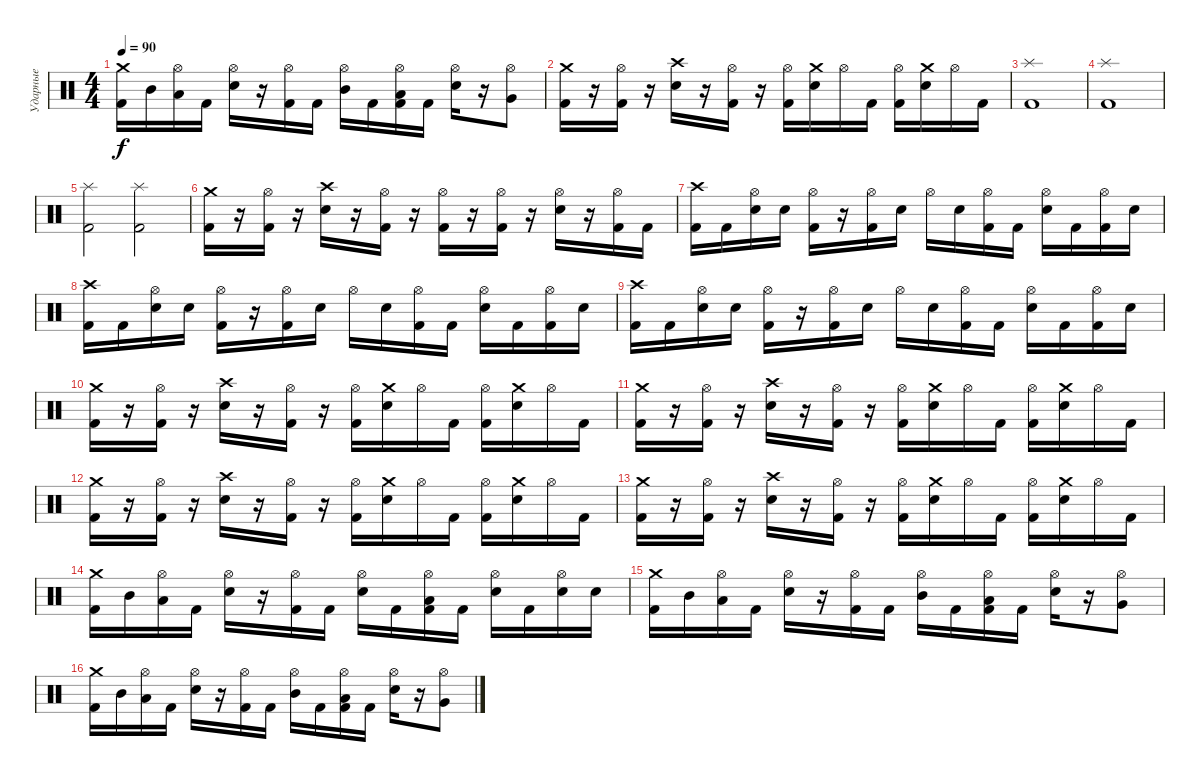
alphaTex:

\track ("Ударные" "Ударные") {instrument percussion}
\staff {score}
\articulation defaults
\ts (4 4)
\tempo 90
\clef neutral
\ks c
("Crash medium (hit)" "Kick (hit) 2").16{dy f} "Mid Tom (hit)".16 ("Hi-Hat (open)" "Low Tom (hit)").16 "Kick (hit) 2".16 ("Hi-Hat (open)" "Snare (hit) 2").16 r.16 ("Hi-Hat (open)" "Kick (hit) 2").16 "Kick (hit) 2".16 ("Hi-Hat (open)" "Mid Tom (hit)").16 "Kick (hit) 2".16 ("Hi-Hat (open)" "Low Tom (hit)" "Kick (hit) 2").16 "Kick (hit) 2".16 ("Hi-Hat (open)" "Snare (hit) 2").16 r.16 ("Hi-Hat (open)" "Very Low Tom (hit)").8 |
("Crash medium (hit)" "Kick (hit) 2").16 r.16 ("Hi-Hat (open)" "Kick (hit) 2").16 r.16 ("Crash high (hit)" "Snare (hit) 2").16 r.16 ("Hi-Hat (open)" "Kick (hit) 2").16 r.16 ("Hi-Hat (open)" "Kick (hit) 2").16 ("Crash medium (hit)" "Snare (hit) 2").16 "Hi-Hat (open)".16 "Kick (hit) 2".16 ("Hi-Hat (open)" "Kick (hit) 2").16 ("Crash medium (hit)" "Snare (hit) 2").16 "Hi-Hat (open)".16 "Kick (hit) 2".16 |
("Splash (hit)" "Kick (hit) 2").1 |
("Splash (hit)" "Kick (hit) 2").1 |
("Splash (hit)" "Kick (hit) 2").2 ("Splash (hit)" "Kick (hit) 2").2 |
("Crash medium (hit)" "Kick (hit) 2").16 r.16 ("Hi-Hat (open)" "Kick (hit) 2").16 r.16 ("Crash high (hit)" "Snare (hit) 2").16 r.16 ("Hi-Hat (open)" "Kick (hit) 2").16 r.16 ("Hi-Hat (open)" "Kick (hit) 2").16 r.16 ("Hi-Hat (open)" "Kick (hit) 2").16 r.16 ("Hi-Hat (open)" "Snare (hit) 2").16 r.16 ("Hi-Hat (open)" "Kick (hit) 2").16 "Kick (hit) 2".16 |
("Crash high (hit)" "Kick (hit) 2").16 "Kick (hit) 2".16 ("Hi-Hat (open)" "Snare (hit) 2").16 "Snare (hit) 2".16 ("Hi-Hat (open)" "Kick (hit) 2").16 r.16 ("Hi-Hat (open)" "Kick (hit) 2").16 "Snare (hit) 2".16 "Hi-Hat (open)".16 "Snare (hit) 2".16 ("Hi-Hat (open)" "Kick (hit) 2").16 "Kick (hit) 2".16 ("Hi-Hat (open)" "Snare (hit) 2").16 "Kick (hit) 2".16 ("Hi-Hat (open)" "Kick (hit) 2").16 "Snare (hit) 2".16 |
("Crash high (hit)" "Kick (hit) 2").16 "Kick (hit) 2".16 ("Hi-Hat (open)" "Snare (hit) 2").16 "Snare (hit) 2".16 ("Hi-Hat (open)" "Kick (hit) 2").16 r.16 ("Hi-Hat (open)" "Kick (hit) 2").16 "Snare (hit) 2".16 "Hi-Hat (open)".16 "Snare (hit) 2".16 ("Hi-Hat (open)" "Kick (hit) 2").16 "Kick (hit) 2".16 ("Hi-Hat (open)" "Snare (hit) 2").16 "Kick (hit) 2".16 ("Hi-Hat (open)" "Kick (hit) 2").16 "Snare (hit) 2".16 |
("Crash high (hit)" "Kick (hit) 2").16 "Kick (hit) 2".16 ("Hi-Hat (open)" "Snare (hit) 2").16 "Snare (hit) 2".16 ("Hi-Hat (open)" "Kick (hit) 2").16 r.16 ("Hi-Hat (open)" "Kick (hit) 2").16 "Snare (hit) 2".16 "Hi-Hat (open)".16 "Snare (hit) 2".16 ("Hi-Hat (open)" "Kick (hit) 2").16 "Kick (hit) 2".16 ("Hi-Hat (open)" "Snare (hit) 2").16 "Kick (hit) 2".16 ("Hi-Hat (open)" "Kick (hit) 2").16 "Snare (hit) 2".16 |
("Crash medium (hit)" "Kick (hit) 2").16 r.16 ("Hi-Hat (open)" "Kick (hit) 2").16 r.16 ("Crash high (hit)" "Snare (hit) 2").16 r.16 ("Hi-Hat (open)" "Kick (hit) 2").16 r.16 ("Hi-Hat (open)" "Kick (hit) 2").16 ("Crash medium (hit)" "Snare (hit) 2").16 "Hi-Hat (open)".16 "Kick (hit) 2".16 ("Hi-Hat (open)" "Kick (hit) 2").16 ("Crash medium (hit)" "Snare (hit) 2").16 "Hi-Hat (open)".16 "Kick (hit) 2".16 |
("Crash medium (hit)" "Kick (hit) 2").16 r.16 ("Hi-Hat (open)" "Kick (hit) 2").16 r.16 ("Crash high (hit)" "Snare (hit) 2").16 r.16 ("Hi-Hat (open)" "Kick (hit) 2").16 r.16 ("Hi-Hat (open)" "Kick (hit) 2").16 ("Crash medium (hit)" "Snare (hit) 2").16 "Hi-Hat (open)".16 "Kick (hit) 2".16 ("Hi-Hat (open)" "Kick (hit) 2").16 ("Crash medium (hit)" "Snare (hit) 2").16 "Hi-Hat (open)".16 "Kick (hit) 2".16 |
("Crash medium (hit)" "Kick (hit) 2").16 r.16 ("Hi-Hat (open)" "Kick (hit) 2").16 r.16 ("Crash high (hit)" "Snare (hit) 2").16 r.16 ("Hi-Hat (open)" "Kick (hit) 2").16 r.16 ("Hi-Hat (open)" "Kick (hit) 2").16 ("Crash medium (hit)" "Snare (hit) 2").16 "Hi-Hat (open)".16 "Kick (hit) 2".16 ("Hi-Hat (open)" "Kick (hit) 2").16 ("Crash medium (hit)" "Snare (hit) 2").16 "Hi-Hat (open)".16 "Kick (hit) 2".16 |
("Crash medium (hit)" "Kick (hit) 2").16 r.16 ("Hi-Hat (open)" "Kick (hit) 2").16 r.16 ("Crash high (hit)" "Snare (hit) 2").16 r.16 ("Hi-Hat (open)" "Kick (hit) 2").16 r.16 ("Hi-Hat (open)" "Kick (hit) 2").16 ("Crash medium (hit)" "Snare (hit) 2").16 "Hi-Hat (open)".16 "Kick (hit) 2".16 ("Hi-Hat (open)" "Kick (hit) 2").16 ("Crash medium (hit)" "Snare (hit) 2").16 "Hi-Hat (open)".16 "Kick (hit) 2".16 |
("Crash medium (hit)" "Kick (hit) 2").16 "Mid Tom (hit)".16 ("Hi-Hat (open)" "Low Tom (hit)").16 "Kick (hit) 2".16 ("Hi-Hat (open)" "Snare (hit) 2").16 r.16 ("Hi-Hat (open)" "Kick (hit) 2").16 "Kick (hit) 2".16 ("Hi-Hat (open)" "Snare (hit) 2").16 "Kick (hit) 2".16 ("Hi-Hat (open)" "Low Tom (hit)" "Kick (hit) 2").16 "Kick (hit) 2".16 ("Hi-Hat (open)" "Snare (hit) 2").16 "Kick (hit) 2".16 ("Hi-Hat (open)" "Snare (hit) 2").16 "Snare (hit) 2".16 |
("Crash medium (hit)" "Kick (hit) 2").16 "Mid Tom (hit)".16 ("Hi-Hat (open)" "Low Tom (hit)").16 "Kick (hit) 2".16 ("Hi-Hat (open)" "Snare (hit) 2").16 r.16 ("Hi-Hat (open)" "Kick (hit) 2").16 "Kick (hit) 2".16 ("Hi-Hat (open)" "Mid Tom (hit)").16 "Kick (hit) 2".16 ("Hi-Hat (open)" "Low Tom (hit)" "Kick (hit) 2").16 "Kick (hit) 2".16 ("Hi-Hat (open)" "Snare (hit) 2").16 r.16 ("Hi-Hat (open)" "Very Low Tom (hit)").8 |
("Crash medium (hit)" "Kick (hit) 2").16 "Mid Tom (hit)".16 ("Hi-Hat (open)" "Low Tom (hit)").16 "Kick (hit) 2".16 ("Hi-Hat (open)" "Snare (hit) 2").16 r.16 ("Hi-Hat (open)" "Kick (hit) 2").16 "Kick (hit) 2".16 ("Hi-Hat (open)" "Mid Tom (hit)").16 "Kick (hit) 2".16 ("Hi-Hat (open)" "Low Tom (hit)" "Kick (hit) 2").16 "Kick (hit) 2".16 ("Hi-Hat (open)" "Snare (hit) 2").16 r.16 ("Hi-Hat (open)" "Very Low Tom (hit)").8
